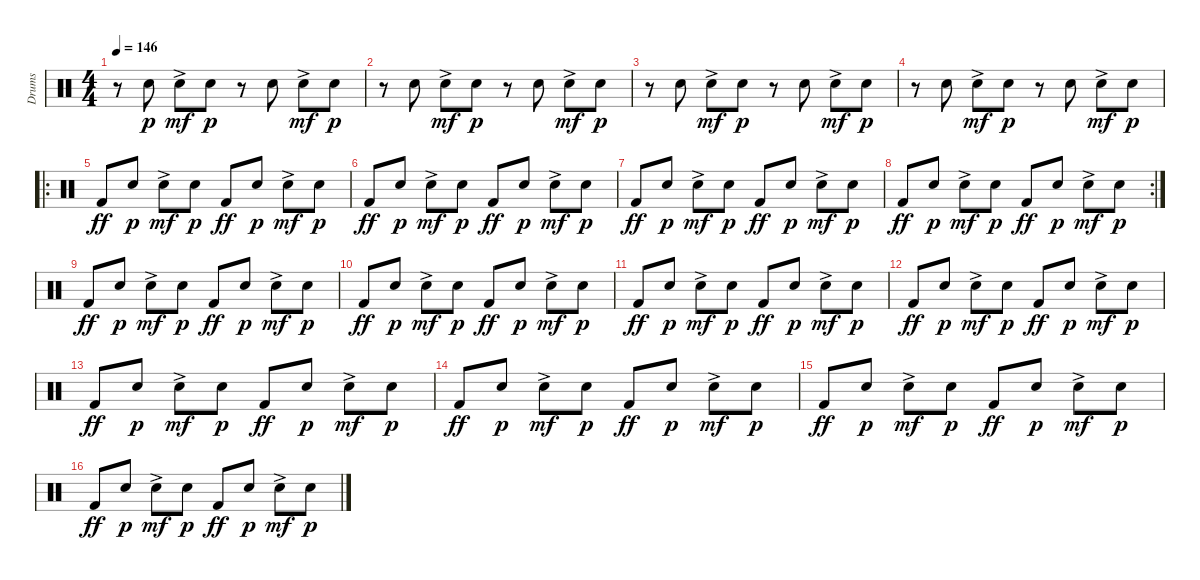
\track ("Drums" "Drums") {instrument percussion}
\staff {score}
\articulation defaults
\ts (4 4)
\tempo 146
\clef neutral
\ks c
r.8{dy p} "Electric Snare (hit)".8 "Electric Snare (hit)"{ac}.8{dy mf} "Electric Snare (hit)".8{dy p} r.8 "Electric Snare (hit)".8 "Electric Snare (hit)"{ac}.8{dy mf} "Electric Snare (hit)".8{dy p} |
r.8 "Electric Snare (hit)".8 "Electric Snare (hit)"{ac}.8{dy mf} "Electric Snare (hit)".8{dy p} r.8 "Electric Snare (hit)".8 "Electric Snare (hit)"{ac}.8{dy mf} "Electric Snare (hit)".8{dy p} |
r.8 "Electric Snare (hit)".8 "Electric Snare (hit)"{ac}.8{dy mf} "Electric Snare (hit)".8{dy p} r.8 "Electric Snare (hit)".8 "Electric Snare (hit)"{ac}.8{dy mf} "Electric Snare (hit)".8{dy p} |
r.8 "Electric Snare (hit)".8 "Electric Snare (hit)"{ac}.8{dy mf} "Electric Snare (hit)".8{dy p} r.8 "Electric Snare (hit)".8 "Electric Snare (hit)"{ac}.8{dy mf} "Electric Snare (hit)".8{dy p} |
\ro "Kick (hit) 2".8{dy ff} "Electric Snare (hit)".8{dy p} "Electric Snare (hit)"{ac}.8{dy mf} "Electric Snare (hit)".8{dy p} "Kick (hit) 2".8{dy ff} "Electric Snare (hit)".8{dy p} "Electric Snare (hit)"{ac}.8{dy mf} "Electric Snare (hit)".8{dy p}
|
"Kick (hit) 2".8{dy ff} "Electric Snare (hit)".8{dy p} "Electric Snare (hit)"{ac}.8{dy mf} "Electric Snare (hit)".8{dy p} "Kick (hit) 2".8{dy ff} "Electric Snare (hit)".8{dy p} "Electric Snare (hit)"{ac}.8{dy mf} "Electric Snare (hit)".8{dy p} |
"Kick (hit) 2".8{dy ff} "Electric Snare (hit)".8{dy p} "Electric Snare (hit)"{ac}.8{dy mf} "Electric Snare (hit)".8{dy p} "Kick (hit) 2".8{dy ff} "Electric Snare (hit)".8{dy p} "Electric Snare (hit)"{ac}.8{dy mf} "Electric Snare (hit)".8{dy p} |
\rc 2 "Kick (hit) 2".8{dy ff} "Electric Snare (hit)".8{dy p} "Electric Snare (hit)"{ac}.8{dy mf} "Electric Snare (hit)".8{dy p} "Kick (hit) 2".8{dy ff} "Electric Snare (hit)".8{dy p} "Electric Snare (hit)"{ac}.8{dy mf} "Electric Snare (hit)".8{dy p}
|
"Kick (hit) 2".8{dy ff} "Electric Snare (hit)".8{dy p} "Electric Snare (hit)"{ac}.8{dy mf} "Electric Snare (hit)".8{dy p} "Kick (hit) 2".8{dy ff} "Electric Snare (hit)".8{dy p} "Electric Snare (hit)"{ac}.8{dy mf} "Electric Snare (hit)".8{dy p} |
"Kick (hit) 2".8{dy ff} "Electric Snare (hit)".8{dy p} "Electric Snare (hit)"{ac}.8{dy mf} "Electric Snare (hit)".8{dy p} "Kick (hit) 2".8{dy ff} "Electric Snare (hit)".8{dy p} "Electric Snare (hit)"{ac}.8{dy mf} "Electric Snare (hit)".8{dy p} |
"Kick (hit) 2".8{dy ff} "Electric Snare (hit)".8{dy p} "Electric Snare (hit)"{ac}.8{dy mf} "Electric Snare (hit)".8{dy p} "Kick (hit) 2".8{dy ff} "Electric Snare (hit)".8{dy p} "Electric Snare (hit)"{ac}.8{dy mf} "Electric Snare (hit)".8{dy p} |
"Kick (hit) 2".8{dy ff} "Electric Snare (hit)".8{dy p} "Electric Snare (hit)"{ac}.8{dy mf} "Electric Snare (hit)".8{dy p} "Kick (hit) 2".8{dy ff} "Electric Snare (hit)".8{dy p} "Electric Snare (hit)"{ac}.8{dy mf} "Electric Snare (hit)".8{dy p} |
"Kick (hit) 2".8{dy ff} "Electric Snare (hit)".8{dy p} "Electric Snare (hit)"{ac}.8{dy mf} "Electric Snare (hit)".8{dy p} "Kick (hit) 2".8{dy ff} "Electric Snare (hit)".8{dy p} "Electric Snare (hit)"{ac}.8{dy mf} "Electric Snare (hit)".8{dy p} |
"Kick (hit) 2".8{dy ff} "Electric Snare (hit)".8{dy p} "Electric Snare (hit)"{ac}.8{dy mf} "Electric Snare (hit)".8{dy p} "Kick (hit) 2".8{dy ff} "Electric Snare (hit)".8{dy p} "Electric Snare (hit)"{ac}.8{dy mf} "Electric Snare (hit)".8{dy p} |
"Kick (hit) 2".8{dy ff} "Electric Snare (hit)".8{dy p} "Electric Snare (hit)"{ac}.8{dy mf} "Electric Snare (hit)".8{dy p} "Kick (hit) 2".8{dy ff} "Electric Snare (hit)".8{dy p} "Electric Snare (hit)"{ac}.8{dy mf} "Electric Snare (hit)".8{dy p} |
"Kick (hit) 2".8{dy ff} "Electric Snare (hit)".8{dy p} "Electric Snare (hit)"{ac}.8{dy mf} "Electric Snare (hit)".8{dy p} "Kick (hit) 2".8{dy ff} "Electric Snare (hit)".8{dy p} "Electric Snare (hit)"{ac}.8{dy mf} "Electric Snare (hit)".8{dy p}
